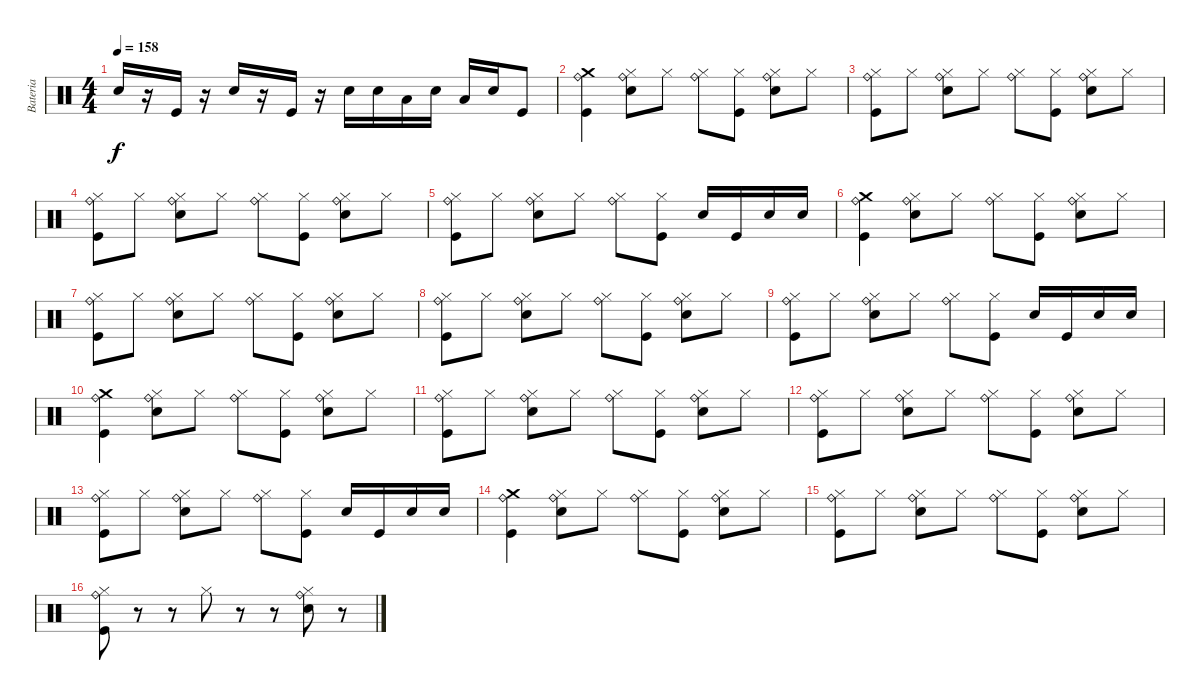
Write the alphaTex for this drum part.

\track ("Bateria" "Bateria") {instrument percussion}
\staff {score}
\articulation defaults
\ts (4 4)
\tempo 158
\clef neutral
\ks c "Electric Snare (hit)".16{dy f}
r.16 "Kick (hit)".16 r.16 "Electric Snare (hit)".16 r.16 "Kick (hit)".16 r.16 "Electric Snare (hit)".16 "Electric Snare (hit)".16 "Low Tom (hit)".16 "Electric Snare (hit)".16 "Low Tom (hit)".16 "Electric Snare (hit)".16 "Kick (hit)".8 |
("Kick (hit)" "Crash medium (hit)" "Ride (bell)").4 ("Electric Snare (hit)" "Hi-Hat (closed)" "Ride (bell)").8 "Hi-Hat (closed)".8 ("Hi-Hat (closed)" "Ride (bell)").8 ("Kick (hit)" "Hi-Hat (closed)").8 ("Electric Snare (hit)" "Hi-Hat (closed)" "Ride (bell)").8 "Hi-Hat (closed)".8 |
("Kick (hit)" "Hi-Hat (closed)" "Ride (bell)").8 "Hi-Hat (closed)".8 ("Electric Snare (hit)" "Hi-Hat (closed)" "Ride (bell)").8 "Hi-Hat (closed)".8 ("Hi-Hat (closed)" "Ride (bell)").8 ("Kick (hit)" "Hi-Hat (closed)").8 ("Electric Snare (hit)" "Hi-Hat (closed)" "Ride (bell)").8 "Hi-Hat (closed)".8 |
("Kick (hit)" "Hi-Hat (closed)" "Ride (bell)").8 "Hi-Hat (closed)".8 ("Electric Snare (hit)" "Hi-Hat (closed)" "Ride (bell)").8 "Hi-Hat (closed)".8 ("Hi-Hat (closed)" "Ride (bell)").8 ("Kick (hit)" "Hi-Hat (closed)").8 ("Electric Snare (hit)" "Hi-Hat (closed)" "Ride (bell)").8 "Hi-Hat (closed)".8 |
("Kick (hit)" "Hi-Hat (closed)" "Ride (bell)").8 "Hi-Hat (closed)".8 ("Electric Snare (hit)" "Hi-Hat (closed)" "Ride (bell)").8 "Hi-Hat (closed)".8 ("Hi-Hat (closed)" "Ride (bell)").8 ("Kick (hit)" "Hi-Hat (closed)").8 "Electric Snare (hit)".16 "Kick (hit)".16 "Snare (hit) 2".16 "Electric Snare (hit)".16 |
("Kick (hit)" "Crash medium (hit)" "Ride (bell)").4 ("Electric Snare (hit)" "Hi-Hat (closed)" "Ride (bell)").8 "Hi-Hat (closed)".8 ("Hi-Hat (closed)" "Ride (bell)").8 ("Kick (hit)" "Hi-Hat (closed)").8 ("Electric Snare (hit)" "Hi-Hat (closed)" "Ride (bell)").8 "Hi-Hat (closed)".8 |
("Kick (hit)" "Hi-Hat (closed)" "Ride (bell)").8 "Hi-Hat (closed)".8 ("Electric Snare (hit)" "Hi-Hat (closed)" "Ride (bell)").8 "Hi-Hat (closed)".8 ("Hi-Hat (closed)" "Ride (bell)").8 ("Kick (hit)" "Hi-Hat (closed)").8 ("Electric Snare (hit)" "Hi-Hat (closed)" "Ride (bell)").8 "Hi-Hat (closed)".8 |
("Kick (hit)" "Hi-Hat (closed)" "Ride (bell)").8 "Hi-Hat (closed)".8 ("Electric Snare (hit)" "Hi-Hat (closed)" "Ride (bell)").8 "Hi-Hat (closed)".8 ("Hi-Hat (closed)" "Ride (bell)").8 ("Kick (hit)" "Hi-Hat (closed)").8 ("Electric Snare (hit)" "Hi-Hat (closed)" "Ride (bell)").8 "Hi-Hat (closed)".8 |
("Kick (hit)" "Hi-Hat (closed)" "Ride (bell)").8 "Hi-Hat (closed)".8 ("Electric Snare (hit)" "Hi-Hat (closed)" "Ride (bell)").8 "Hi-Hat (closed)".8 ("Hi-Hat (closed)" "Ride (bell)").8 ("Kick (hit)" "Hi-Hat (closed)").8 "Electric Snare (hit)".16 "Kick (hit)".16 "Snare (hit) 2".16 "Electric Snare (hit)".16 |
("Kick (hit)" "Crash medium (hit)" "Ride (bell)").4 ("Electric Snare (hit)" "Hi-Hat (closed)" "Ride (bell)").8 "Hi-Hat (closed)".8 ("Hi-Hat (closed)" "Ride (bell)").8 ("Kick (hit)" "Hi-Hat (closed)").8 ("Electric Snare (hit)" "Hi-Hat (closed)" "Ride (bell)").8 "Hi-Hat (closed)".8 |
("Kick (hit)" "Hi-Hat (closed)" "Ride (bell)").8 "Hi-Hat (closed)".8 ("Electric Snare (hit)" "Hi-Hat (closed)" "Ride (bell)").8 "Hi-Hat (closed)".8 ("Hi-Hat (closed)" "Ride (bell)").8 ("Kick (hit)" "Hi-Hat (closed)").8 ("Electric Snare (hit)" "Hi-Hat (closed)" "Ride (bell)").8 "Hi-Hat (closed)".8 |
("Kick (hit)" "Hi-Hat (closed)" "Ride (bell)").8 "Hi-Hat (closed)".8 ("Electric Snare (hit)" "Hi-Hat (closed)" "Ride (bell)").8 "Hi-Hat (closed)".8 ("Hi-Hat (closed)" "Ride (bell)").8 ("Kick (hit)" "Hi-Hat (closed)").8 ("Electric Snare (hit)" "Hi-Hat (closed)" "Ride (bell)").8 "Hi-Hat (closed)".8 |
("Kick (hit)" "Hi-Hat (closed)" "Ride (bell)").8 "Hi-Hat (closed)".8 ("Electric Snare (hit)" "Hi-Hat (closed)" "Ride (bell)").8 "Hi-Hat (closed)".8 ("Hi-Hat (closed)" "Ride (bell)").8 ("Kick (hit)" "Hi-Hat (closed)").8 "Electric Snare (hit)".16 "Kick (hit)".16 "Snare (hit) 2".16 "Electric Snare (hit)".16 |
("Kick (hit)" "Crash medium (hit)" "Ride (bell)").4 ("Electric Snare (hit)" "Hi-Hat (closed)" "Ride (bell)").8 "Hi-Hat (closed)".8 ("Hi-Hat (closed)" "Ride (bell)").8 ("Kick (hit)" "Hi-Hat (closed)").8 ("Electric Snare (hit)" "Hi-Hat (closed)" "Ride (bell)").8 "Hi-Hat (closed)".8 |
("Kick (hit)" "Hi-Hat (closed)" "Ride (bell)").8 "Hi-Hat (closed)".8 ("Electric Snare (hit)" "Hi-Hat (closed)" "Ride (bell)").8 "Hi-Hat (closed)".8 ("Hi-Hat (closed)" "Ride (bell)").8 ("Kick (hit)" "Hi-Hat (closed)").8 ("Electric Snare (hit)" "Hi-Hat (closed)" "Ride (bell)").8 "Hi-Hat (closed)".8 |
("Kick (hit)" "Hi-Hat (closed)" "Ride (bell)").8 r.8 r.8 "Hi-Hat (closed)".8 r.8 r.8 ("Electric Snare (hit)" "Hi-Hat (closed)" "Ride (bell)").8 r.8
